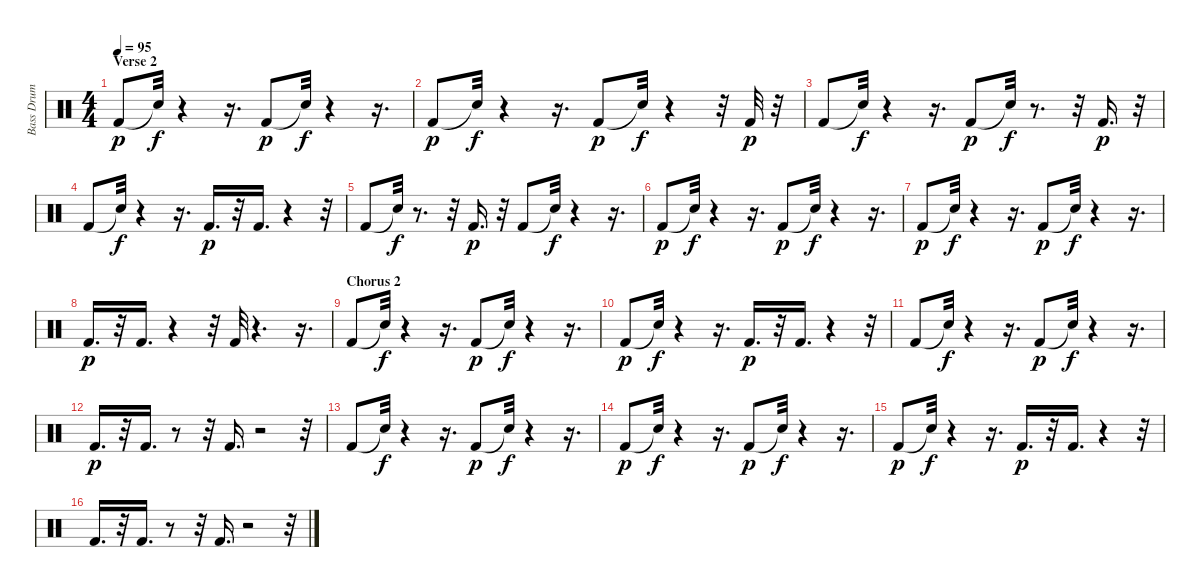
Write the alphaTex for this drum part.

\track ("Bass Drum" "Bass Drum") {instrument percussion}
\staff {score}
\articulation defaults
\ts (4 4)
\section ("" "Verse 2")
\tempo 95
\clef neutral
\ks c "Kick (hit) 2".8{dy p} "Snare (hit)"{t}.32{dy f}
r.4 r.16{d} "Kick (hit) 2".8{dy p} "Snare (hit)"{t}.32{dy f} r.4 r.16{d} |
"Kick (hit) 2".8{dy p} "Snare (hit)"{t}.32{dy f} r.4 r.16{d} "Kick (hit) 2".8{dy p} "Snare (hit)"{t}.32{dy f} r.4 r.32 "Kick (hit) 2".32{dy p} r.32 |
"Kick (hit) 2".8 "Snare (hit)"{t}.32{dy f} r.4 r.16{d} "Kick (hit) 2".8{dy p} "Snare (hit)"{t}.32{dy f} r.8{d} r.32 "Kick (hit) 2".16{d dy p} r.32 |
"Kick (hit) 2".8 "Snare (hit)"{t}.32{dy f} r.4 r.16{d} "Kick (hit) 2".16{d dy p} r.32 "Kick (hit) 2".16{d} r.4 r.32 |
"Kick (hit) 2".8 "Snare (hit)"{t}.32{dy f} r.8{d} r.32 "Kick (hit) 2".16{d dy p} r.32 "Kick (hit) 2".8 "Snare (hit)"{t}.32{dy f} r.4 r.16{d} |
"Kick (hit) 2".8{dy p} "Snare (hit)"{t}.32{dy f} r.4 r.16{d} "Kick (hit) 2".8{dy p} "Snare (hit)"{t}.32{dy f} r.4 r.16{d} |
"Kick (hit) 2".8{dy p} "Snare (hit)"{t}.32{dy f} r.4 r.16{d} "Kick (hit) 2".8{dy p} "Snare (hit)"{t}.32{dy f} r.4 r.16{d} |
"Kick (hit) 2".16{d dy p} r.32 "Kick (hit) 2".16{d} r.4 r.32 "Kick (hit) 2".32 r.4{d} r.16{d} |
\section ("" "Chorus 2")
"Kick (hit) 2".8 "Snare (hit)"{t}.32{dy f} r.4 r.16{d} "Kick (hit) 2".8{dy p} "Snare (hit)"{t}.32{dy f} r.4 r.16{d} |
"Kick (hit) 2".8{dy p} "Snare (hit)"{t}.32{dy f} r.4 r.16{d} "Kick (hit) 2".16{d dy p} r.32 "Kick (hit) 2".16{d} r.4 r.32 |
"Kick (hit) 2".8 "Snare (hit)"{t}.32{dy f} r.4 r.16{d} "Kick (hit) 2".8{dy p} "Snare (hit)"{t}.32{dy f} r.4 r.16{d} |
"Kick (hit) 2".16{d dy p} r.32 "Kick (hit) 2".16{d} r.8 r.32 "Kick (hit) 2".16{d} r.2 r.32 |
"Kick (hit) 2".8 "Snare (hit)"{t}.32{dy f} r.4 r.16{d} "Kick (hit) 2".8{dy p} "Snare (hit)"{t}.32{dy f} r.4 r.16{d} |
"Kick (hit) 2".8{dy p} "Snare (hit)"{t}.32{dy f} r.4 r.16{d} "Kick (hit) 2".8{dy p} "Snare (hit)"{t}.32{dy f} r.4 r.16{d} |
"Kick (hit) 2".8{dy p} "Snare (hit)"{t}.32{dy f} r.4 r.16{d} "Kick (hit) 2".16{d dy p} r.32 "Kick (hit) 2".16{d} r.4 r.32 |
"Kick (hit) 2".16{d} r.32 "Kick (hit) 2".16{d} r.8 r.32 "Kick (hit) 2".16{d} r.2 r.32
